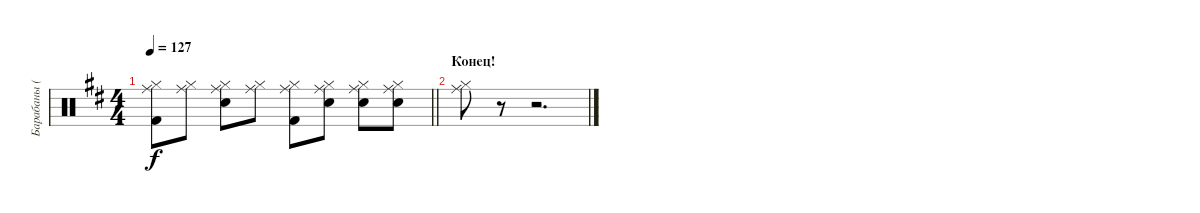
\track ("Барабаны (Е.Летов)" "Барабаны (") {instrument percussion}
\staff {score}
\articulation defaults
\ts (4 4)
\tempo 127
\clef neutral
\barLineRight lightlight
\ks d
("Kick (hit) 2" "Ride (middle)" "Hi-Hat (closed)").8{dy f} ("Ride (middle)" "Hi-Hat (closed)").8 ("Snare (hit) 2" "Ride (middle)" "Hi-Hat (closed)").8 ("Ride (middle)" "Hi-Hat (closed)").8 ("Kick (hit) 2" "Ride (middle)" "Hi-Hat (closed)").8 ("Snare (hit) 2" "Ride (middle)" "Hi-Hat (closed)").8 ("Snare (hit) 2" "Ride (middle)" "Hi-Hat (closed)").8 ("Snare (hit) 2" "Ride (middle)" "Hi-Hat (closed)").8 |
\section ("" "Конец!")
("Ride (middle)" "Hi-Hat (closed)").8 r.8 r.2{d}
